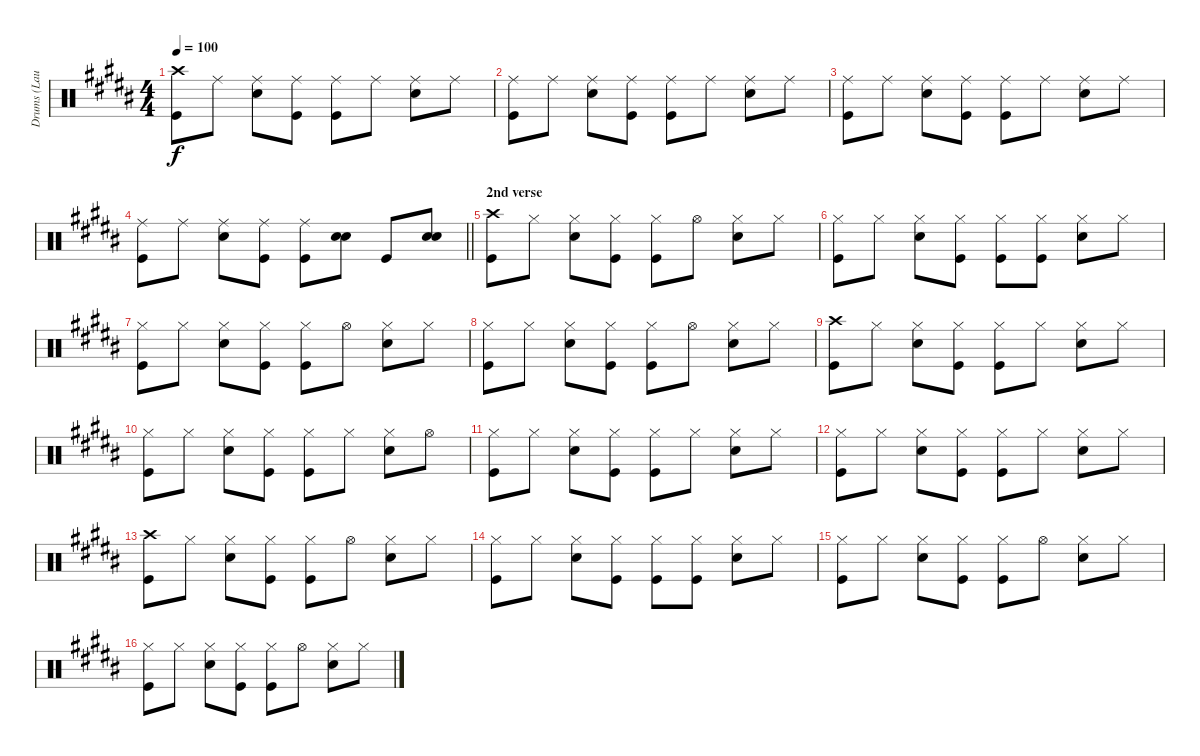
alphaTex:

\track ("Drums (Laust Sonne)" "Drums (Lau") {instrument percussion}
\staff {score}
\articulation defaults
\ts (4 4)
\tempo 100
\clef neutral
\ks b
("Crash high (hit)" "Kick (hit)").8{dy f} "Ride (middle)".8 ("Ride (middle)" "Snare (hit) 2").8 ("Ride (middle)" "Kick (hit)").8 ("Ride (middle)" "Kick (hit)").8 "Ride (middle)".8 ("Ride (middle)" "Snare (hit) 2").8 "Ride (middle)".8 |
("Ride (middle)" "Kick (hit)").8 "Ride (middle)".8 ("Ride (middle)" "Snare (hit) 2").8 ("Ride (middle)" "Kick (hit)").8 ("Ride (middle)" "Kick (hit)").8 "Ride (middle)".8 ("Ride (middle)" "Snare (hit) 2").8 "Ride (middle)".8 |
("Ride (middle)" "Kick (hit)").8 "Ride (middle)".8 ("Ride (middle)" "Snare (hit) 2").8 ("Ride (middle)" "Kick (hit)").8 ("Ride (middle)" "Kick (hit)").8 "Ride (middle)".8 ("Ride (middle)" "Snare (hit) 2").8 "Ride (middle)".8 |
\barLineRight lightlight
("Ride (middle)" "Kick (hit)").8 "Ride (middle)".8 ("Ride (middle)" "Snare (hit) 2").8 ("Ride (middle)" "Kick (hit)").8 ("Ride (middle)" "Kick (hit)").8 ("Snare (hit) 2" "Snare (hit) 2").8 "Kick (hit)".8 ("Snare (hit) 2" "Snare (hit) 2").8 |
\section ("" "2nd verse")
("Crash high (hit)" "Kick (hit)").8 "Hi-Hat (closed)".8 ("Hi-Hat (closed)" "Snare (hit) 2").8 ("Hi-Hat (closed)" "Kick (hit)").8 ("Hi-Hat (closed)" "Kick (hit)").8 "Hi-Hat (open)".8 ("Hi-Hat (closed)" "Snare (hit) 2").8 "Hi-Hat (closed)".8 |
("Hi-Hat (closed)" "Kick (hit)").8 "Hi-Hat (closed)".8 ("Hi-Hat (closed)" "Snare (hit) 2").8 ("Hi-Hat (closed)" "Kick (hit)").8 ("Hi-Hat (closed)" "Kick (hit)").8 ("Hi-Hat (closed)" "Kick (hit)").8 ("Hi-Hat (closed)" "Snare (hit) 2").8 "Hi-Hat (closed)".8 |
("Hi-Hat (closed)" "Kick (hit)").8 "Hi-Hat (closed)".8 ("Hi-Hat (closed)" "Snare (hit) 2").8 ("Hi-Hat (closed)" "Kick (hit)").8 ("Hi-Hat (closed)" "Kick (hit)").8 "Hi-Hat (open)".8 ("Hi-Hat (closed)" "Snare (hit) 2").8 "Hi-Hat (closed)".8 |
("Hi-Hat (closed)" "Kick (hit)").8 "Hi-Hat (closed)".8 ("Hi-Hat (closed)" "Snare (hit) 2").8 ("Hi-Hat (closed)" "Kick (hit)").8 ("Hi-Hat (closed)" "Kick (hit)").8 "Hi-Hat (open)".8 ("Hi-Hat (closed)" "Snare (hit) 2").8 "Hi-Hat (closed)".8 |
("Crash high (hit)" "Kick (hit)").8 "Hi-Hat (closed)".8 ("Hi-Hat (closed)" "Snare (hit) 2").8 ("Hi-Hat (closed)" "Kick (hit)").8 ("Hi-Hat (closed)" "Kick (hit)").8 "Hi-Hat (closed)".8 ("Hi-Hat (closed)" "Snare (hit) 2").8 "Hi-Hat (closed)".8 |
("Hi-Hat (closed)" "Kick (hit)").8 "Hi-Hat (closed)".8 ("Hi-Hat (closed)" "Snare (hit) 2").8 ("Hi-Hat (closed)" "Kick (hit)").8 ("Hi-Hat (closed)" "Kick (hit)").8 "Hi-Hat (closed)".8 ("Hi-Hat (closed)" "Snare (hit) 2").8 "Hi-Hat (open)".8 |
("Hi-Hat (closed)" "Kick (hit)").8 "Hi-Hat (closed)".8 ("Hi-Hat (closed)" "Snare (hit) 2").8 ("Hi-Hat (closed)" "Kick (hit)").8 ("Hi-Hat (closed)" "Kick (hit)").8 "Hi-Hat (closed)".8 ("Hi-Hat (closed)" "Snare (hit) 2").8 "Hi-Hat (closed)".8 |
("Hi-Hat (closed)" "Kick (hit)").8 "Hi-Hat (closed)".8 ("Hi-Hat (closed)" "Snare (hit) 2").8 ("Hi-Hat (closed)" "Kick (hit)").8 ("Hi-Hat (closed)" "Kick (hit)").8 "Hi-Hat (closed)".8 ("Hi-Hat (closed)" "Snare (hit) 2").8 "Hi-Hat (closed)".8 |
("Crash high (hit)" "Kick (hit)").8 "Hi-Hat (closed)".8 ("Hi-Hat (closed)" "Snare (hit) 2").8 ("Hi-Hat (closed)" "Kick (hit)").8 ("Hi-Hat (closed)" "Kick (hit)").8 "Hi-Hat (open)".8 ("Hi-Hat (closed)" "Snare (hit) 2").8 "Hi-Hat (closed)".8 |
("Hi-Hat (closed)" "Kick (hit)").8 "Hi-Hat (closed)".8 ("Hi-Hat (closed)" "Snare (hit) 2").8 ("Hi-Hat (closed)" "Kick (hit)").8 ("Hi-Hat (closed)" "Kick (hit)").8 ("Hi-Hat (closed)" "Kick (hit)").8 ("Hi-Hat (closed)" "Snare (hit) 2").8 "Hi-Hat (closed)".8 |
("Hi-Hat (closed)" "Kick (hit)").8 "Hi-Hat (closed)".8 ("Hi-Hat (closed)" "Snare (hit) 2").8 ("Hi-Hat (closed)" "Kick (hit)").8 ("Hi-Hat (closed)" "Kick (hit)").8 "Hi-Hat (open)".8 ("Hi-Hat (closed)" "Snare (hit) 2").8 "Hi-Hat (closed)".8 |
("Hi-Hat (closed)" "Kick (hit)").8 "Hi-Hat (closed)".8 ("Hi-Hat (closed)" "Snare (hit) 2").8 ("Hi-Hat (closed)" "Kick (hit)").8 ("Hi-Hat (closed)" "Kick (hit)").8 "Hi-Hat (open)".8 ("Hi-Hat (closed)" "Snare (hit) 2").8 "Hi-Hat (closed)".8
